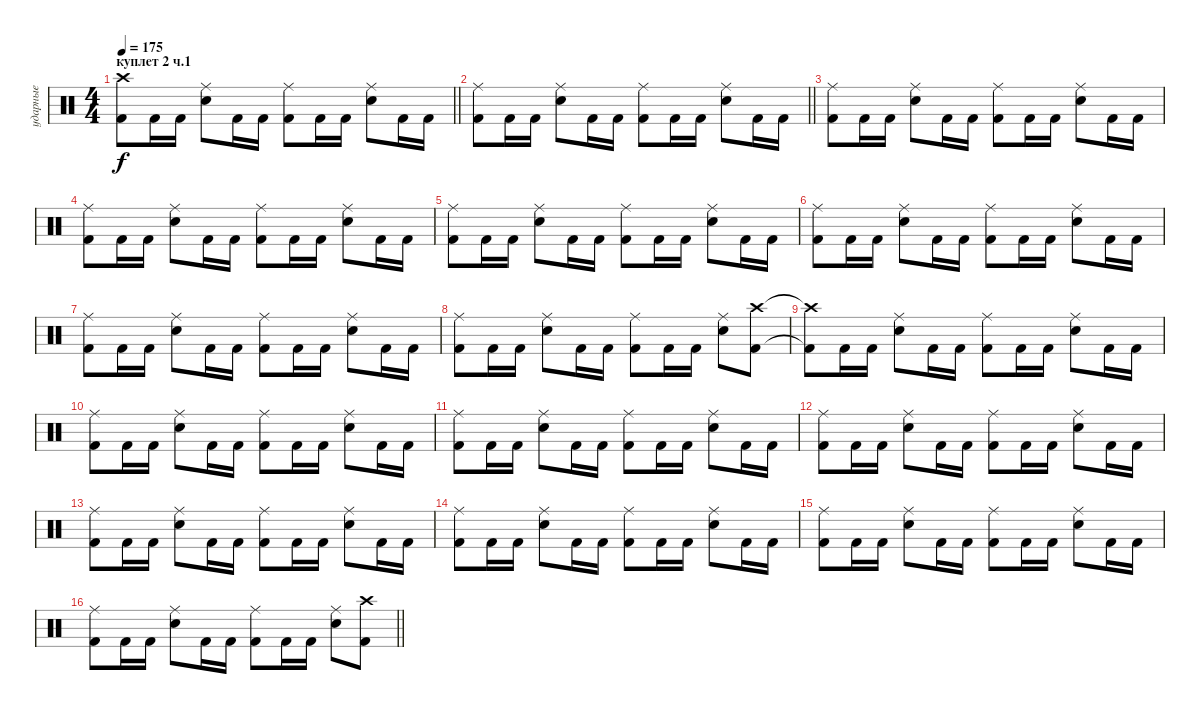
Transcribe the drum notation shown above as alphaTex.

\track ("ударные" "ударные") {instrument percussion}
\staff {score}
\articulation defaults
\ts (4 4)
\section ("" "куплет 2 ч.1")
\tempo 175
\clef neutral
\barLineRight lightlight
\ks c
("Kick (hit) 2"{t} "Crash high (hit)"{t}).8{dy f} "Kick (hit) 2".16 "Kick (hit) 2".16 ("Snare (hit) 2" "Ride (middle)").8 "Kick (hit) 2".16 "Kick (hit) 2".16 ("Kick (hit) 2" "Ride (middle)").8 "Kick (hit) 2".16 "Kick (hit) 2".16 ("Snare (hit) 2" "Ride (middle)").8 "Kick (hit) 2".16 "Kick (hit) 2".16 |
\barLineRight lightlight
("Kick (hit) 2" "Ride (middle)").8 "Kick (hit) 2".16 "Kick (hit) 2".16 ("Snare (hit) 2" "Ride (middle)").8 "Kick (hit) 2".16 "Kick (hit) 2".16 ("Kick (hit) 2" "Ride (middle)").8 "Kick (hit) 2".16 "Kick (hit) 2".16 ("Snare (hit) 2" "Ride (middle)").8 "Kick (hit) 2".16 "Kick (hit) 2".16 |
("Kick (hit) 2" "Ride (middle)").8 "Kick (hit) 2".16 "Kick (hit) 2".16 ("Snare (hit) 2" "Ride (middle)").8 "Kick (hit) 2".16 "Kick (hit) 2".16 ("Kick (hit) 2" "Ride (middle)").8 "Kick (hit) 2".16 "Kick (hit) 2".16 ("Snare (hit) 2" "Ride (middle)").8 "Kick (hit) 2".16 "Kick (hit) 2".16 |
("Kick (hit) 2" "Ride (middle)").8 "Kick (hit) 2".16 "Kick (hit) 2".16 ("Snare (hit) 2" "Ride (middle)").8 "Kick (hit) 2".16 "Kick (hit) 2".16 ("Kick (hit) 2" "Ride (middle)").8 "Kick (hit) 2".16 "Kick (hit) 2".16 ("Snare (hit) 2" "Ride (middle)").8 "Kick (hit) 2".16 "Kick (hit) 2".16 |
("Kick (hit) 2" "Ride (middle)").8 "Kick (hit) 2".16 "Kick (hit) 2".16 ("Snare (hit) 2" "Ride (middle)").8 "Kick (hit) 2".16 "Kick (hit) 2".16 ("Kick (hit) 2" "Ride (middle)").8 "Kick (hit) 2".16 "Kick (hit) 2".16 ("Snare (hit) 2" "Ride (middle)").8 "Kick (hit) 2".16 "Kick (hit) 2".16 |
("Kick (hit) 2" "Ride (middle)").8 "Kick (hit) 2".16 "Kick (hit) 2".16 ("Snare (hit) 2" "Ride (middle)").8 "Kick (hit) 2".16 "Kick (hit) 2".16 ("Kick (hit) 2" "Ride (middle)").8 "Kick (hit) 2".16 "Kick (hit) 2".16 ("Snare (hit) 2" "Ride (middle)").8 "Kick (hit) 2".16 "Kick (hit) 2".16 |
("Kick (hit) 2" "Ride (middle)").8 "Kick (hit) 2".16 "Kick (hit) 2".16 ("Snare (hit) 2" "Ride (middle)").8 "Kick (hit) 2".16 "Kick (hit) 2".16 ("Kick (hit) 2" "Ride (middle)").8 "Kick (hit) 2".16 "Kick (hit) 2".16 ("Snare (hit) 2" "Ride (middle)").8 "Kick (hit) 2".16 "Kick (hit) 2".16 |
("Kick (hit) 2" "Ride (middle)").8 "Kick (hit) 2".16 "Kick (hit) 2".16 ("Snare (hit) 2" "Ride (middle)").8 "Kick (hit) 2".16 "Kick (hit) 2".16 ("Kick (hit) 2" "Ride (middle)").8 "Kick (hit) 2".16 "Kick (hit) 2".16 ("Snare (hit) 2" "Ride (middle)").8 ("Kick (hit) 2" "Crash high (hit)").8 |
("Kick (hit) 2"{t} "Crash high (hit)"{t}).8 "Kick (hit) 2".16 "Kick (hit) 2".16 ("Snare (hit) 2" "Ride (middle)").8 "Kick (hit) 2".16 "Kick (hit) 2".16 ("Kick (hit) 2" "Ride (middle)").8 "Kick (hit) 2".16 "Kick (hit) 2".16 ("Snare (hit) 2" "Ride (middle)").8 "Kick (hit) 2".16 "Kick (hit) 2".16 |
("Kick (hit) 2" "Ride (middle)").8 "Kick (hit) 2".16 "Kick (hit) 2".16 ("Snare (hit) 2" "Ride (middle)").8 "Kick (hit) 2".16 "Kick (hit) 2".16 ("Kick (hit) 2" "Ride (middle)").8 "Kick (hit) 2".16 "Kick (hit) 2".16 ("Snare (hit) 2" "Ride (middle)").8 "Kick (hit) 2".16 "Kick (hit) 2".16 |
("Kick (hit) 2" "Ride (middle)").8 "Kick (hit) 2".16 "Kick (hit) 2".16 ("Snare (hit) 2" "Ride (middle)").8 "Kick (hit) 2".16 "Kick (hit) 2".16 ("Kick (hit) 2" "Ride (middle)").8 "Kick (hit) 2".16 "Kick (hit) 2".16 ("Snare (hit) 2" "Ride (middle)").8 "Kick (hit) 2".16 "Kick (hit) 2".16 |
("Kick (hit) 2" "Ride (middle)").8 "Kick (hit) 2".16 "Kick (hit) 2".16 ("Snare (hit) 2" "Ride (middle)").8 "Kick (hit) 2".16 "Kick (hit) 2".16 ("Kick (hit) 2" "Ride (middle)").8 "Kick (hit) 2".16 "Kick (hit) 2".16 ("Snare (hit) 2" "Ride (middle)").8 "Kick (hit) 2".16 "Kick (hit) 2".16 |
("Kick (hit) 2" "Ride (middle)").8 "Kick (hit) 2".16 "Kick (hit) 2".16 ("Snare (hit) 2" "Ride (middle)").8 "Kick (hit) 2".16 "Kick (hit) 2".16 ("Kick (hit) 2" "Ride (middle)").8 "Kick (hit) 2".16 "Kick (hit) 2".16 ("Snare (hit) 2" "Ride (middle)").8 "Kick (hit) 2".16 "Kick (hit) 2".16 |
("Kick (hit) 2" "Ride (middle)").8 "Kick (hit) 2".16 "Kick (hit) 2".16 ("Snare (hit) 2" "Ride (middle)").8 "Kick (hit) 2".16 "Kick (hit) 2".16 ("Kick (hit) 2" "Ride (middle)").8 "Kick (hit) 2".16 "Kick (hit) 2".16 ("Snare (hit) 2" "Ride (middle)").8 "Kick (hit) 2".16 "Kick (hit) 2".16 |
("Kick (hit) 2" "Ride (middle)").8 "Kick (hit) 2".16 "Kick (hit) 2".16 ("Snare (hit) 2" "Ride (middle)").8 "Kick (hit) 2".16 "Kick (hit) 2".16 ("Kick (hit) 2" "Ride (middle)").8 "Kick (hit) 2".16 "Kick (hit) 2".16 ("Snare (hit) 2" "Ride (middle)").8 "Kick (hit) 2".16 "Kick (hit) 2".16 |
\barLineRight lightlight
("Kick (hit) 2" "Ride (middle)").8 "Kick (hit) 2".16 "Kick (hit) 2".16 ("Snare (hit) 2" "Ride (middle)").8 "Kick (hit) 2".16 "Kick (hit) 2".16 ("Kick (hit) 2" "Ride (middle)").8 "Kick (hit) 2".16 "Kick (hit) 2".16 ("Snare (hit) 2" "Ride (middle)").8 ("Kick (hit) 2" "Crash high (hit)").8
